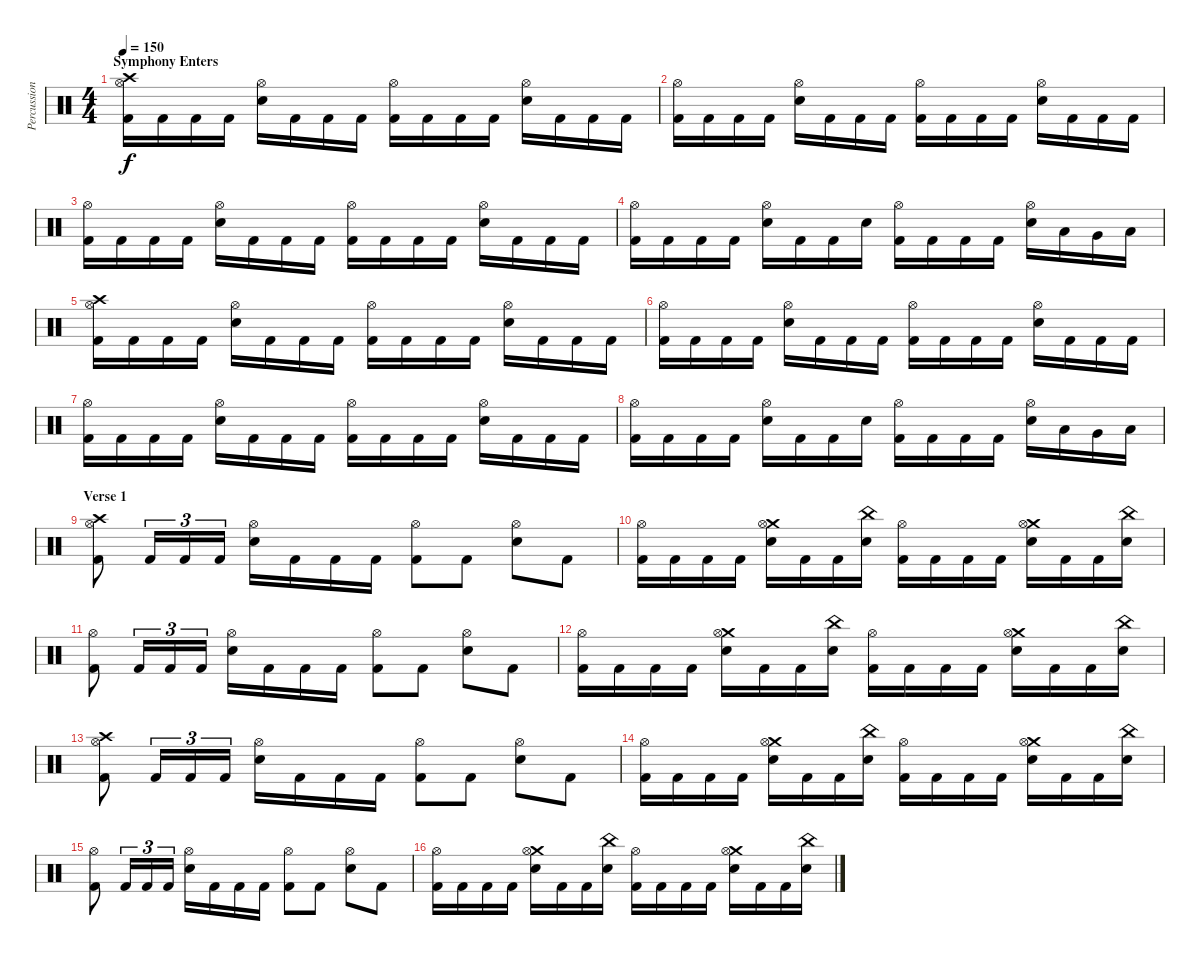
\track ("Percussions" "Percussion") {instrument percussion}
\staff {score}
\articulation defaults
\ts (4 4)
\section ("" "Symphony Enters")
\tempo 150
\clef neutral
\ks c
("Crash high (hit)" "Hi-Hat (open)" "Kick (hit) 2").16{dy f} "Kick (hit) 2".16 "Kick (hit) 2".16 "Kick (hit) 2".16 ("Hi-Hat (open)" "Electric Snare (hit)").16 "Kick (hit) 2".16 "Kick (hit) 2".16 "Kick (hit) 2".16 ("Hi-Hat (open)" "Kick (hit) 2").16 "Kick (hit) 2".16 "Kick (hit) 2".16 "Kick (hit) 2".16 ("Hi-Hat (open)" "Electric Snare (hit)").16 "Kick (hit) 2".16 "Kick (hit) 2".16 "Kick (hit) 2".16 |
("Hi-Hat (open)" "Kick (hit) 2").16 "Kick (hit) 2".16 "Kick (hit) 2".16 "Kick (hit) 2".16 ("Hi-Hat (open)" "Electric Snare (hit)").16 "Kick (hit) 2".16 "Kick (hit) 2".16 "Kick (hit) 2".16 ("Hi-Hat (open)" "Kick (hit) 2").16 "Kick (hit) 2".16 "Kick (hit) 2".16 "Kick (hit) 2".16 ("Hi-Hat (open)" "Electric Snare (hit)").16 "Kick (hit) 2".16 "Kick (hit) 2".16 "Kick (hit) 2".16 |
("Hi-Hat (open)" "Kick (hit) 2").16 "Kick (hit) 2".16 "Kick (hit) 2".16 "Kick (hit) 2".16 ("Hi-Hat (open)" "Electric Snare (hit)").16 "Kick (hit) 2".16 "Kick (hit) 2".16 "Kick (hit) 2".16 ("Hi-Hat (open)" "Kick (hit) 2").16 "Kick (hit) 2".16 "Kick (hit) 2".16 "Kick (hit) 2".16 ("Hi-Hat (open)" "Electric Snare (hit)").16 "Kick (hit) 2".16 "Kick (hit) 2".16 "Kick (hit) 2".16 |
("Hi-Hat (open)" "Kick (hit) 2").16 "Kick (hit) 2".16 "Kick (hit) 2".16 "Kick (hit) 2".16 ("Hi-Hat (open)" "Electric Snare (hit)").16 "Kick (hit) 2".16 "Kick (hit) 2".16 "Electric Snare (hit)".16 ("Hi-Hat (open)" "Kick (hit) 2").16 "Kick (hit) 2".16 "Kick (hit) 2".16 "Kick (hit) 2".16 ("Hi-Hat (open)" "Electric Snare (hit)").16 "Low Tom (hit)".16 "Very Low Tom (hit)".16 "Low Floor Tom (hit)".16 |
("Crash high (hit)" "Hi-Hat (open)" "Kick (hit) 2").16 "Kick (hit) 2".16 "Kick (hit) 2".16 "Kick (hit) 2".16 ("Hi-Hat (open)" "Electric Snare (hit)").16 "Kick (hit) 2".16 "Kick (hit) 2".16 "Kick (hit) 2".16 ("Hi-Hat (open)" "Kick (hit) 2").16 "Kick (hit) 2".16 "Kick (hit) 2".16 "Kick (hit) 2".16 ("Hi-Hat (open)" "Electric Snare (hit)").16 "Kick (hit) 2".16 "Kick (hit) 2".16 "Kick (hit) 2".16 |
("Hi-Hat (open)" "Kick (hit) 2").16 "Kick (hit) 2".16 "Kick (hit) 2".16 "Kick (hit) 2".16 ("Hi-Hat (open)" "Electric Snare (hit)").16 "Kick (hit) 2".16 "Kick (hit) 2".16 "Kick (hit) 2".16 ("Hi-Hat (open)" "Kick (hit) 2").16 "Kick (hit) 2".16 "Kick (hit) 2".16 "Kick (hit) 2".16 ("Hi-Hat (open)" "Electric Snare (hit)").16 "Kick (hit) 2".16 "Kick (hit) 2".16 "Kick (hit) 2".16 |
("Hi-Hat (open)" "Kick (hit) 2").16 "Kick (hit) 2".16 "Kick (hit) 2".16 "Kick (hit) 2".16 ("Hi-Hat (open)" "Electric Snare (hit)").16 "Kick (hit) 2".16 "Kick (hit) 2".16 "Kick (hit) 2".16 ("Hi-Hat (open)" "Kick (hit) 2").16 "Kick (hit) 2".16 "Kick (hit) 2".16 "Kick (hit) 2".16 ("Hi-Hat (open)" "Electric Snare (hit)").16 "Kick (hit) 2".16 "Kick (hit) 2".16 "Kick (hit) 2".16 |
("Hi-Hat (open)" "Kick (hit) 2").16 "Kick (hit) 2".16 "Kick (hit) 2".16 "Kick (hit) 2".16 ("Hi-Hat (open)" "Electric Snare (hit)").16 "Kick (hit) 2".16 "Kick (hit) 2".16 "Electric Snare (hit)".16 ("Hi-Hat (open)" "Kick (hit) 2").16 "Kick (hit) 2".16 "Kick (hit) 2".16 "Kick (hit) 2".16 ("Hi-Hat (open)" "Electric Snare (hit)").16 "Low Tom (hit)".16 "Very Low Tom (hit)".16 "Low Floor Tom (hit)".16 |
\section ("" "Verse 1")
("Crash high (hit)" "Hi-Hat (open)" "Kick (hit) 2").8 "Kick (hit) 2".16{tu (3 2)} "Kick (hit) 2".16{tu (3 2)} "Kick (hit) 2".16{tu (3 2)} ("Hi-Hat (open)" "Electric Snare (hit)").16 "Kick (hit) 2".16 "Kick (hit) 2".16 "Kick (hit) 2".16 ("Hi-Hat (open)" "Kick (hit) 2").8 "Kick (hit) 2".8 ("Hi-Hat (open)" "Electric Snare (hit)").8 "Kick (hit) 2".8 |
("Hi-Hat (open)" "Kick (hit) 2").16 "Kick (hit) 2".16 "Kick (hit) 2".16 "Kick (hit) 2".16 ("Crash medium (hit)" "Hi-Hat (open)" "Electric Snare (hit)").16 "Kick (hit) 2".16 "Kick (hit) 2".16 ("China (hit)" "Electric Snare (hit)").16 ("Hi-Hat (open)" "Kick (hit) 2").16 "Kick (hit) 2".16 "Kick (hit) 2".16 "Kick (hit) 2".16 ("Crash medium (hit)" "Hi-Hat (open)" "Electric Snare (hit)").16 "Kick (hit) 2".16 "Kick (hit) 2".16 ("China (hit)" "Electric Snare (hit)").16 |
("Hi-Hat (open)" "Kick (hit) 2").8 "Kick (hit) 2".16{tu (3 2)} "Kick (hit) 2".16{tu (3 2)} "Kick (hit) 2".16{tu (3 2)} ("Hi-Hat (open)" "Electric Snare (hit)").16 "Kick (hit) 2".16 "Kick (hit) 2".16 "Kick (hit) 2".16 ("Hi-Hat (open)" "Kick (hit) 2").8 "Kick (hit) 2".8 ("Hi-Hat (open)" "Electric Snare (hit)").8 "Kick (hit) 2".8 |
("Hi-Hat (open)" "Kick (hit) 2").16 "Kick (hit) 2".16 "Kick (hit) 2".16 "Kick (hit) 2".16 ("Crash medium (hit)" "Hi-Hat (open)" "Electric Snare (hit)").16 "Kick (hit) 2".16 "Kick (hit) 2".16 ("China (hit)" "Electric Snare (hit)").16 ("Hi-Hat (open)" "Kick (hit) 2").16 "Kick (hit) 2".16 "Kick (hit) 2".16 "Kick (hit) 2".16 ("Crash medium (hit)" "Hi-Hat (open)" "Electric Snare (hit)").16 "Kick (hit) 2".16 "Kick (hit) 2".16 ("China (hit)" "Electric Snare (hit)").16 |
("Crash high (hit)" "Hi-Hat (open)" "Kick (hit) 2").8 "Kick (hit) 2".16{tu (3 2)} "Kick (hit) 2".16{tu (3 2)} "Kick (hit) 2".16{tu (3 2)} ("Hi-Hat (open)" "Electric Snare (hit)").16 "Kick (hit) 2".16 "Kick (hit) 2".16 "Kick (hit) 2".16 ("Hi-Hat (open)" "Kick (hit) 2").8 "Kick (hit) 2".8 ("Hi-Hat (open)" "Electric Snare (hit)").8 "Kick (hit) 2".8 |
("Hi-Hat (open)" "Kick (hit) 2").16 "Kick (hit) 2".16 "Kick (hit) 2".16 "Kick (hit) 2".16 ("Crash medium (hit)" "Hi-Hat (open)" "Electric Snare (hit)").16 "Kick (hit) 2".16 "Kick (hit) 2".16 ("China (hit)" "Electric Snare (hit)").16 ("Hi-Hat (open)" "Kick (hit) 2").16 "Kick (hit) 2".16 "Kick (hit) 2".16 "Kick (hit) 2".16 ("Crash medium (hit)" "Hi-Hat (open)" "Electric Snare (hit)").16 "Kick (hit) 2".16 "Kick (hit) 2".16 ("China (hit)" "Electric Snare (hit)").16 |
("Hi-Hat (open)" "Kick (hit) 2").8 "Kick (hit) 2".16{tu (3 2)} "Kick (hit) 2".16{tu (3 2)} "Kick (hit) 2".16{tu (3 2)} ("Hi-Hat (open)" "Electric Snare (hit)").16 "Kick (hit) 2".16 "Kick (hit) 2".16 "Kick (hit) 2".16 ("Hi-Hat (open)" "Kick (hit) 2").8 "Kick (hit) 2".8 ("Hi-Hat (open)" "Electric Snare (hit)").8 "Kick (hit) 2".8 |
("Hi-Hat (open)" "Kick (hit) 2").16 "Kick (hit) 2".16 "Kick (hit) 2".16 "Kick (hit) 2".16 ("Crash medium (hit)" "Hi-Hat (open)" "Electric Snare (hit)").16 "Kick (hit) 2".16 "Kick (hit) 2".16 ("China (hit)" "Electric Snare (hit)").16 ("Hi-Hat (open)" "Kick (hit) 2").16 "Kick (hit) 2".16 "Kick (hit) 2".16 "Kick (hit) 2".16 ("Crash medium (hit)" "Hi-Hat (open)" "Electric Snare (hit)").16 "Kick (hit) 2".16 "Kick (hit) 2".16 ("China (hit)" "Electric Snare (hit)").16
